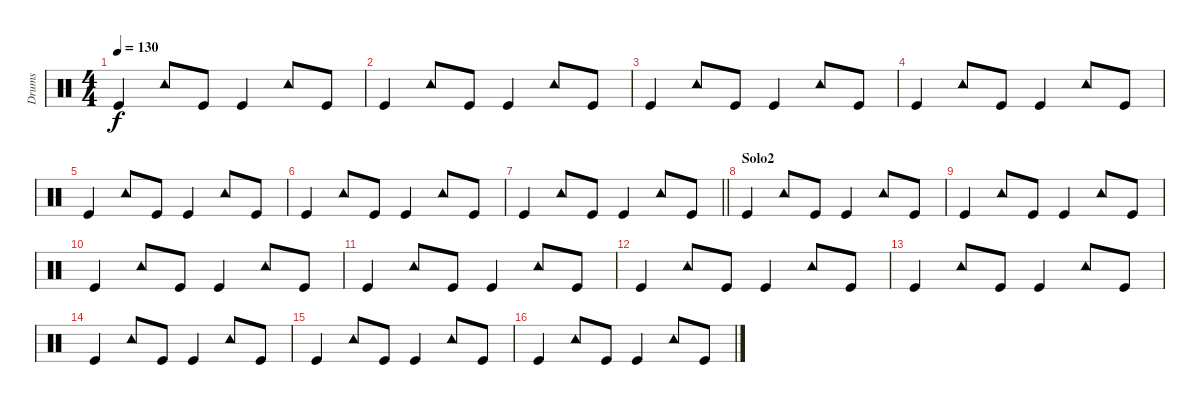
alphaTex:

\track ("Drums" "Drums") {instrument percussion}
\staff {score}
\articulation defaults
\ts (4 4)
\tempo 130
\clef neutral
\ks c "Kick (hit)".4{dy f} "Tambourine (hit)".8 "Kick (hit)".8 "Kick (hit)".4 "Tambourine (hit)".8 "Kick (hit)".8
|
"Kick (hit)".4 "Tambourine (hit)".8 "Kick (hit)".8 "Kick (hit)".4 "Tambourine (hit)".8 "Kick (hit)".8 |
"Kick (hit)".4 "Tambourine (hit)".8 "Kick (hit)".8 "Kick (hit)".4 "Tambourine (hit)".8 "Kick (hit)".8 |
"Kick (hit)".4 "Tambourine (hit)".8 "Kick (hit)".8 "Kick (hit)".4 "Tambourine (hit)".8 "Kick (hit)".8 |
"Kick (hit)".4 "Tambourine (hit)".8 "Kick (hit)".8 "Kick (hit)".4 "Tambourine (hit)".8 "Kick (hit)".8 |
"Kick (hit)".4 "Tambourine (hit)".8 "Kick (hit)".8 "Kick (hit)".4 "Tambourine (hit)".8 "Kick (hit)".8 |
\barLineRight lightlight "Kick (hit)".4 "Tambourine (hit)".8 "Kick (hit)".8 "Kick (hit)".4 "Tambourine (hit)".8 "Kick (hit)".8
|
\section ("" "Solo2")
"Kick (hit)".4 "Tambourine (hit)".8 "Kick (hit)".8 "Kick (hit)".4 "Tambourine (hit)".8 "Kick (hit)".8 |
"Kick (hit)".4 "Tambourine (hit)".8 "Kick (hit)".8 "Kick (hit)".4 "Tambourine (hit)".8 "Kick (hit)".8 |
"Kick (hit)".4 "Tambourine (hit)".8 "Kick (hit)".8 "Kick (hit)".4 "Tambourine (hit)".8 "Kick (hit)".8 |
"Kick (hit)".4 "Tambourine (hit)".8 "Kick (hit)".8 "Kick (hit)".4 "Tambourine (hit)".8 "Kick (hit)".8 |
"Kick (hit)".4 "Tambourine (hit)".8 "Kick (hit)".8 "Kick (hit)".4 "Tambourine (hit)".8 "Kick (hit)".8 |
"Kick (hit)".4 "Tambourine (hit)".8 "Kick (hit)".8 "Kick (hit)".4 "Tambourine (hit)".8 "Kick (hit)".8 |
"Kick (hit)".4 "Tambourine (hit)".8 "Kick (hit)".8 "Kick (hit)".4 "Tambourine (hit)".8 "Kick (hit)".8 |
"Kick (hit)".4 "Tambourine (hit)".8 "Kick (hit)".8 "Kick (hit)".4 "Tambourine (hit)".8 "Kick (hit)".8 |
"Kick (hit)".4 "Tambourine (hit)".8 "Kick (hit)".8 "Kick (hit)".4 "Tambourine (hit)".8 "Kick (hit)".8
